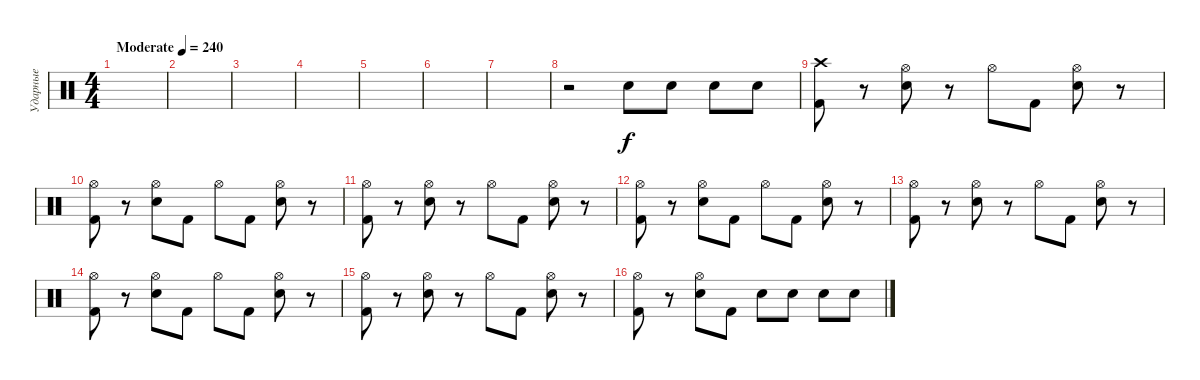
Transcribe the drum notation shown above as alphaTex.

\track ("Ударные" "Ударные") {instrument percussion}
\staff {score}
\articulation defaults
\ts (4 4)
\tempo (240 "Moderate")
\clef neutral
\ks c
|
|
|
|
|
|
|
r.2 "Electric Snare (hit)".8 "Electric Snare (hit)".8 "Electric Snare (hit)".8 "Electric Snare (hit)".8 |
("Crash high (hit)" "Kick (hit) 2").8 r.8 ("Hi-Hat (open)" "Electric Snare (hit)").8 r.8 "Hi-Hat (open)".8 "Kick (hit) 2".8 ("Hi-Hat (open)" "Electric Snare (hit)").8 r.8 |
("Hi-Hat (open)" "Kick (hit) 2").8 r.8 ("Hi-Hat (open)" "Electric Snare (hit)").8 "Kick (hit) 2".8 "Hi-Hat (open)".8 "Kick (hit) 2".8 ("Hi-Hat (open)" "Electric Snare (hit)").8 r.8 |
("Hi-Hat (open)" "Kick (hit) 2").8 r.8 ("Hi-Hat (open)" "Electric Snare (hit)").8 r.8 "Hi-Hat (open)".8 "Kick (hit) 2".8 ("Hi-Hat (open)" "Electric Snare (hit)").8 r.8 |
("Hi-Hat (open)" "Kick (hit) 2").8 r.8 ("Hi-Hat (open)" "Electric Snare (hit)").8 "Kick (hit) 2".8 "Hi-Hat (open)".8 "Kick (hit) 2".8 ("Hi-Hat (open)" "Electric Snare (hit)").8 r.8 |
("Hi-Hat (open)" "Kick (hit) 2").8 r.8 ("Hi-Hat (open)" "Electric Snare (hit)").8 r.8 "Hi-Hat (open)".8 "Kick (hit) 2".8 ("Hi-Hat (open)" "Electric Snare (hit)").8 r.8 |
("Hi-Hat (open)" "Kick (hit) 2").8 r.8 ("Hi-Hat (open)" "Electric Snare (hit)").8 "Kick (hit) 2".8 "Hi-Hat (open)".8 "Kick (hit) 2".8 ("Hi-Hat (open)" "Electric Snare (hit)").8 r.8 |
("Hi-Hat (open)" "Kick (hit) 2").8 r.8 ("Hi-Hat (open)" "Electric Snare (hit)").8 r.8 "Hi-Hat (open)".8 "Kick (hit) 2".8 ("Hi-Hat (open)" "Electric Snare (hit)").8 r.8 |
("Hi-Hat (open)" "Kick (hit) 2").8 r.8 ("Hi-Hat (open)" "Electric Snare (hit)").8 "Kick (hit) 2".8 "Electric Snare (hit)".8 "Electric Snare (hit)".8 "Electric Snare (hit)".8 "Electric Snare (hit)".8
